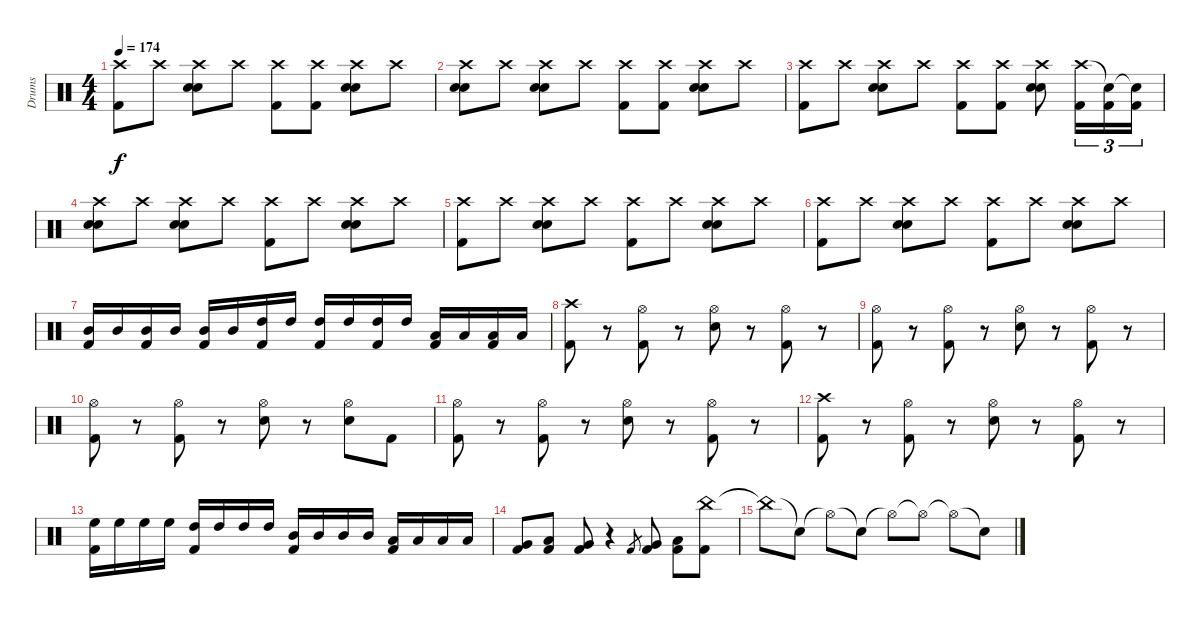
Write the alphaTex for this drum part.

\track ("Drums" "Drums") {instrument percussion}
\staff {score}
\articulation defaults
\ts (4 4)
\tempo 174
\clef neutral
\ks c
("Crash high (hit)" "Kick (hit) 2").8{dy f} "Crash high (hit)".8 ("Crash high (hit)" "Electric Snare (hit)" "Electric Snare (hit)").8 "Crash high (hit)".8 ("Crash high (hit)" "Kick (hit) 2").8 ("Crash high (hit)" "Kick (hit) 2").8 ("Crash high (hit)" "Electric Snare (hit)" "Electric Snare (hit)").8 "Crash high (hit)".8 |
("Crash high (hit)" "Electric Snare (hit)" "Electric Snare (hit)").8 "Crash high (hit)".8 ("Crash high (hit)" "Electric Snare (hit)" "Electric Snare (hit)").8 "Crash high (hit)".8 ("Crash high (hit)" "Kick (hit) 2").8 ("Crash high (hit)" "Kick (hit) 2").8 ("Crash high (hit)" "Electric Snare (hit)" "Electric Snare (hit)").8 "Crash high (hit)".8 |
("Crash high (hit)" "Kick (hit) 2").8 "Crash high (hit)".8 ("Crash high (hit)" "Electric Snare (hit)" "Electric Snare (hit)").8 "Crash high (hit)".8 ("Crash high (hit)" "Kick (hit) 2").8 ("Crash high (hit)" "Kick (hit) 2").8 ("Crash high (hit)" "Electric Snare (hit)" "Electric Snare (hit)").8 ("Crash high (hit)" "Kick (hit) 2").16{tu (3 2)} ("Snare (hit)"{t} "Kick (hit) 2").16{tu (3 2)} ("Snare (hit)"{t} "Kick (hit) 2").16{tu (3 2)} |
("Crash high (hit)" "Electric Snare (hit)" "Electric Snare (hit)").8 "Crash high (hit)".8 ("Crash high (hit)" "Electric Snare (hit)" "Electric Snare (hit)").8 "Crash high (hit)".8 ("Crash high (hit)" "Kick (hit) 2").8 "Crash high (hit)".8 ("Crash high (hit)" "Electric Snare (hit)" "Electric Snare (hit)").8 "Crash high (hit)".8 |
("Crash high (hit)" "Kick (hit) 2").8 "Crash high (hit)".8 ("Crash high (hit)" "Electric Snare (hit)" "Electric Snare (hit)").8 "Crash high (hit)".8 ("Crash high (hit)" "Kick (hit) 2").8 "Crash high (hit)".8 ("Crash high (hit)" "Electric Snare (hit)" "Electric Snare (hit)").8 "Crash high (hit)".8 |
("Crash high (hit)" "Kick (hit) 2").8 "Crash high (hit)".8 ("Crash high (hit)" "Electric Snare (hit)" "Electric Snare (hit)").8 "Crash high (hit)".8 ("Crash high (hit)" "Kick (hit) 2").8 "Crash high (hit)".8 ("Crash high (hit)" "Electric Snare (hit)" "Electric Snare (hit)").8 "Crash high (hit)".8 |
("Mid Tom (hit)" "Kick (hit) 2").16 "Mid Tom (hit)".16 ("Mid Tom (hit)" "Kick (hit) 2").16 "Mid Tom (hit)".16 ("Mid Tom (hit)" "Kick (hit) 2").16 "Mid Tom (hit)".16 ("High Tom (hit)" "Kick (hit) 2").16 "High Tom (hit)".16 ("High Tom (hit)" "Kick (hit) 2").16 "High Tom (hit)".16 ("High Tom (hit)" "Kick (hit) 2").16 "High Tom (hit)".16 ("Low Tom (hit)" "Kick (hit) 2").16 "Low Tom (hit)".16 ("Low Tom (hit)" "Kick (hit) 2").16 "Low Tom (hit)".16 |
("Crash high (hit)" "Kick (hit) 2").8 r.8 ("Hi-Hat (open)" "Kick (hit) 2").8 r.8 ("Hi-Hat (open)" "Electric Snare (hit)").8 r.8 ("Hi-Hat (open)" "Kick (hit) 2").8 r.8 |
("Hi-Hat (open)" "Kick (hit) 2").8 r.8 ("Hi-Hat (open)" "Kick (hit) 2").8 r.8 ("Hi-Hat (open)" "Electric Snare (hit)").8 r.8 ("Hi-Hat (open)" "Kick (hit) 2").8 r.8 |
("Hi-Hat (open)" "Kick (hit) 2").8 r.8 ("Hi-Hat (open)" "Kick (hit) 2").8 r.8 ("Hi-Hat (open)" "Electric Snare (hit)").8 r.8 ("Hi-Hat (open)" "Electric Snare (hit)").8 "Kick (hit) 2".8 |
("Hi-Hat (open)" "Kick (hit) 2").8 r.8 ("Hi-Hat (open)" "Kick (hit) 2").8 r.8 ("Hi-Hat (open)" "Electric Snare (hit)").8 r.8 ("Hi-Hat (open)" "Kick (hit) 2").8 r.8 |
("Crash high (hit)" "Kick (hit) 2").8 r.8 ("Hi-Hat (open)" "Kick (hit) 2").8 r.8 ("Hi-Hat (open)" "Electric Snare (hit)").8 r.8 ("Hi-Hat (open)" "Kick (hit) 2").8 r.8 |
("High Floor Tom (hit)" "Kick (hit) 2").16 "High Floor Tom (hit)".16 "High Floor Tom (hit)".16 "High Floor Tom (hit)".16 ("High Tom (hit)" "Kick (hit) 2").16 "High Tom (hit)".16 "High Tom (hit)".16 "High Tom (hit)".16 ("Mid Tom (hit)" "Kick (hit) 2").16 "Mid Tom (hit)".16 "Mid Tom (hit)".16 "Mid Tom (hit)".16 ("Low Tom (hit)" "Kick (hit) 2").16 "Low Tom (hit)".16 "Low Tom (hit)".16 "Low Tom (hit)".16 |
("Very Low Tom (hit)" "Kick (hit) 2").8 ("Low Floor Tom (hit)" "Kick (hit) 2").8 ("Very Low Tom (hit)" "Kick (hit) 2").8 r.4 "Kick (hit) 2".8{gr} ("Very Low Tom (hit)" "Kick (hit) 2").8 ("Low Floor Tom (hit)" "Kick (hit) 2").8 ("China (hit)" "Kick (hit) 2").8 |
"China (hit)"{t}.8 "Snare (hit)"{t}.8 "Hi-Hat (open)"{t}.8 "Snare (hit)"{t}.8 "Hi-Hat (open)"{t}.8 "Hi-Hat (open)"{t}.8 "Hi-Hat (open)"{t}.8 "Snare (hit)"{t}.8
